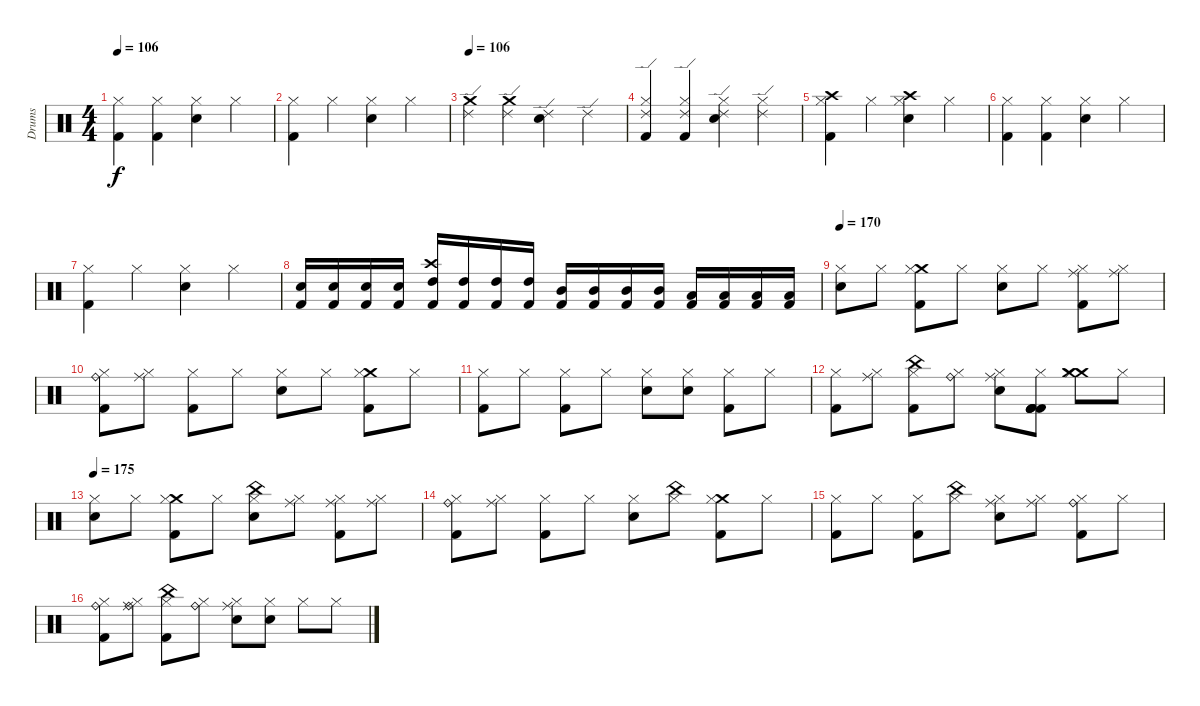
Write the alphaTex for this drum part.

\track ("Drums" "Drums") {instrument percussion}
\staff {score}
\articulation defaults
\ts (4 4)
\tempo 106
\clef neutral
\ks c
("Kick (hit) 2" "Hi-Hat (closed)").4{dy f} ("Kick (hit) 2" "Hi-Hat (closed)").4 ("Electric Snare (hit)" "Hi-Hat (closed)").4 "Hi-Hat (closed)".4 |
("Kick (hit) 2" "Hi-Hat (closed)").4 "Hi-Hat (closed)".4 ("Electric Snare (hit)" "Hi-Hat (closed)").4 "Hi-Hat (closed)".4 |
\tempo 106
("Crash medium (hit)" "Ride (edge) 2").4 ("Crash medium (hit)" "Ride (edge) 2").4 ("Electric Snare (hit)" "Ride (edge) 2").4 "Ride (edge) 2".4 |
("Kick (hit) 2" "Hi-Hat (closed)" "Ride (edge) 2").4 ("Kick (hit) 2" "Hi-Hat (closed)" "Ride (edge) 2").4 ("Electric Snare (hit)" "Hi-Hat (closed)" "Ride (edge) 2").4 ("Hi-Hat (closed)" "Ride (edge) 2").4 |
("Crash high (hit)" "Kick (hit) 2" "Hi-Hat (closed)").4 "Hi-Hat (closed)".4 ("Crash high (hit)" "Electric Snare (hit)" "Hi-Hat (closed)").4 "Hi-Hat (closed)".4 |
("Kick (hit) 2" "Hi-Hat (closed)").4 ("Kick (hit) 2" "Hi-Hat (closed)").4 ("Electric Snare (hit)" "Hi-Hat (closed)").4 "Hi-Hat (closed)".4 |
("Kick (hit) 2" "Hi-Hat (closed)").4 "Hi-Hat (closed)".4 ("Electric Snare (hit)" "Hi-Hat (closed)").4 "Hi-Hat (closed)".4 |
("Electric Snare (hit)" "Kick (hit) 2").16 ("Electric Snare (hit)" "Kick (hit) 2").16 ("Electric Snare (hit)" "Kick (hit) 2").16 ("Electric Snare (hit)" "Kick (hit) 2").16 ("High Tom (hit)" "Crash high (hit)" "Kick (hit) 2").16 ("High Tom (hit)" "Kick (hit) 2").16 ("High Tom (hit)" "Kick (hit) 2").16 ("High Tom (hit)" "Kick (hit) 2").16 ("Mid Tom (hit)" "Kick (hit) 2").16 ("Mid Tom (hit)" "Kick (hit) 2").16 ("Mid Tom (hit)" "Kick (hit) 2").16 ("Mid Tom (hit)" "Kick (hit) 2").16 ("Low Tom (hit)" "Kick (hit) 2").16 ("Low Tom (hit)" "Kick (hit) 2").16 ("Low Tom (hit)" "Kick (hit) 2").16 ("Low Tom (hit)" "Kick (hit) 2").16 |
\tempo 170
("Electric Snare (hit)" "Hi-Hat (closed)").8 "Hi-Hat (closed)".8 ("Crash medium (hit)" "Kick (hit) 2" "Hi-Hat (closed)").8 "Hi-Hat (closed)".8 ("Electric Snare (hit)" "Hi-Hat (closed)").8 "Hi-Hat (closed)".8 ("Kick (hit) 2" "Ride (middle)" "Hi-Hat (closed)").8 ("Ride (middle)" "Hi-Hat (closed)").8 |
("Kick (hit) 2" "Ride (bell)" "Hi-Hat (closed)").8 ("Ride (middle)" "Hi-Hat (closed)").8 ("Kick (hit) 2" "Hi-Hat (closed)").8 "Hi-Hat (closed)".8 ("Electric Snare (hit)" "Hi-Hat (closed)").8 "Hi-Hat (closed)".8 ("Crash medium (hit)" "Kick (hit) 2" "Hi-Hat (closed)").8 "Hi-Hat (closed)".8 |
("Kick (hit) 2" "Hi-Hat (closed)").8 "Hi-Hat (closed)".8 ("Kick (hit) 2" "Hi-Hat (closed)").8 "Hi-Hat (closed)".8 ("Electric Snare (hit)" "Hi-Hat (closed)").8 ("Electric Snare (hit)" "Hi-Hat (closed)").8 ("Kick (hit) 2" "Hi-Hat (closed)").8 "Hi-Hat (closed)".8 |
("Kick (hit) 2" "Hi-Hat (closed)").8 ("Ride (middle)" "Hi-Hat (closed)").8 ("Kick (hit) 2" "China (hit)" "Hi-Hat (closed)").8 ("Ride (bell)" "Hi-Hat (closed)").8 ("Ride (middle)" "Electric Snare (hit)" "Hi-Hat (closed)").8 ("Kick (hit) 2" "Kick (hit) 2" "Kick (hit) 2" "Kick (hit) 2" "Hi-Hat (closed)").8 ("Crash medium (hit)" "Crash medium (hit)" "Hi-Hat (closed)").8 "Hi-Hat (closed)".8 |
\tempo 175
("Electric Snare (hit)" "Hi-Hat (closed)").8 "Hi-Hat (closed)".8 ("Crash medium (hit)" "Kick (hit) 2" "Hi-Hat (closed)").8 "Hi-Hat (closed)".8 ("China (hit)" "Electric Snare (hit)" "Hi-Hat (closed)").8 ("Ride (middle)" "Hi-Hat (closed)").8 ("Kick (hit) 2" "Ride (middle)" "Hi-Hat (closed)").8 ("Ride (middle)" "Hi-Hat (closed)").8 |
("Kick (hit) 2" "Ride (bell)" "Hi-Hat (closed)").8 ("Ride (middle)" "Hi-Hat (closed)").8 ("Kick (hit) 2" "Hi-Hat (closed)").8 "Hi-Hat (closed)".8 ("Electric Snare (hit)" "Hi-Hat (closed)").8 ("China (hit)" "Hi-Hat (closed)").8 ("Crash medium (hit)" "Kick (hit) 2" "Hi-Hat (closed)").8 "Hi-Hat (closed)".8 |
("Kick (hit) 2" "Hi-Hat (closed)").8 "Hi-Hat (closed)".8 ("Kick (hit) 2" "Hi-Hat (closed)").8 ("China (hit)" "Hi-Hat (closed)").8 ("Ride (middle)" "Electric Snare (hit)" "Hi-Hat (closed)").8 ("Ride (middle)" "Hi-Hat (closed)").8 ("Ride (bell)" "Kick (hit) 2" "Hi-Hat (closed)").8 "Hi-Hat (closed)".8 |
("Ride (bell)" "Kick (hit) 2" "Hi-Hat (closed)").8 ("Ride (bell)" "Ride (middle)" "Hi-Hat (closed)").8 ("Kick (hit) 2" "China (hit)" "Hi-Hat (closed)").8 ("Ride (bell)" "Hi-Hat (closed)").8 ("Ride (middle)" "Electric Snare (hit)" "Hi-Hat (closed)").8 ("Electric Snare (hit)" "Hi-Hat (closed)").8 "Hi-Hat (closed)".8 "Hi-Hat (closed)".8
